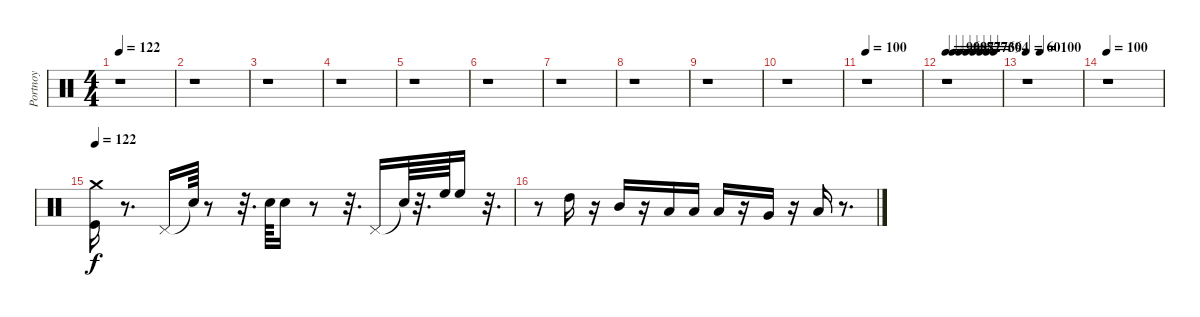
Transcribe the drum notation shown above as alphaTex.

\track ("Portnoy" "Portnoy") {instrument percussion}
\staff {score}
\articulation defaults
\ts (4 4)
\tempo 122
\clef neutral
\ks c
r.1{dy f} |
r.1 |
r.1 |
r.1 |
r.1 |
r.1 |
r.1 |
r.1 |
r.1 |
r.1 |
\tempo 100
r.1 |
\tempo 96
\tempo (90 0.125)
\tempo (87 0.25)
\tempo (82 0.375)
\tempo (77 0.5)
\tempo (73 0.625)
\tempo (69 0.75)
\tempo (64 0.875)
r.1 |
\tempo 60
\tempo (100 0.25)
r.1 |
\tempo 100
r.1 |
\tempo 122
("Crash medium (hit)" "Kick (hit)").16 r.8{d} "Pedal Hi-Hat (hit)".16 "Snare (hit)"{t}.64 r.8 r.32{d} "Metronome (bell)".64 "Metronome (bell)".16 r.8 r.32{d} "Pedal Hi-Hat (hit)".16 "Snare (hit)"{t}.64 r.32{d} "High Floor Tom (hit)".64 "High Floor Tom (hit)".16 r.32{d} |
r.8 "High Tom (hit)".16 r.16 "Mid Tom (hit)".16 r.16 "Low Tom (hit)".16 "Low Tom (hit)".16 "Low Tom (hit)".16 r.16 "Very Low Tom (hit)".16 r.16 "Low Floor Tom (hit)".16 r.8{d}
